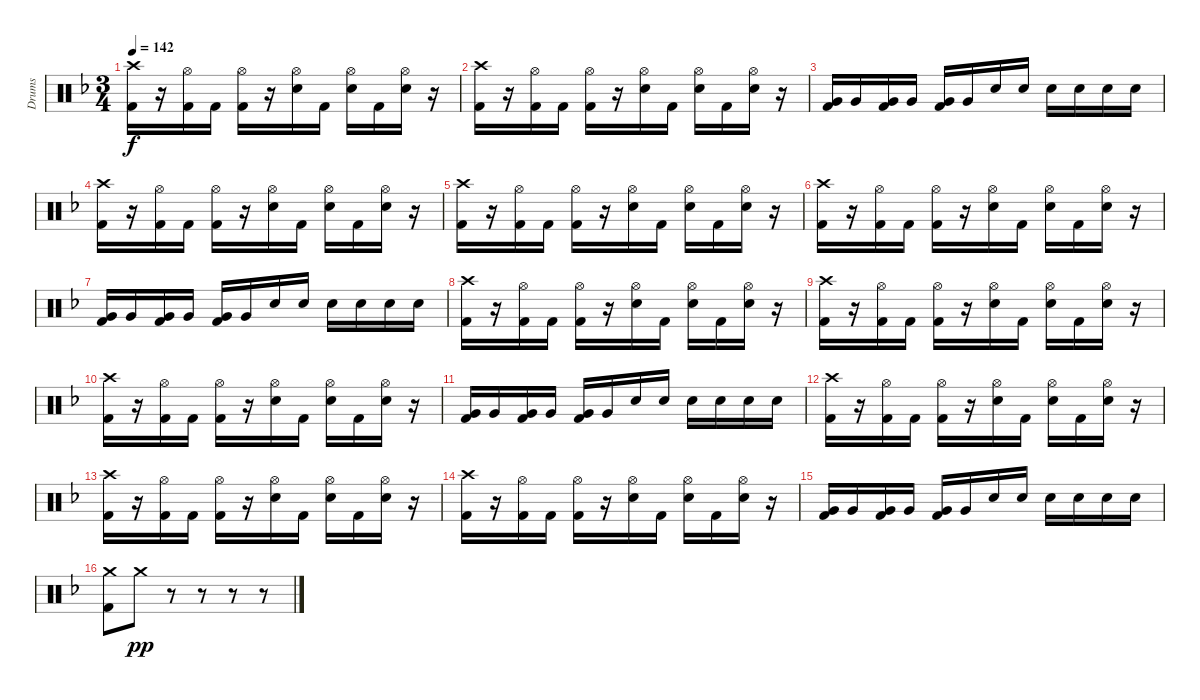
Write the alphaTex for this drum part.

\track ("Drums" "Drums") {instrument percussion}
\staff {score}
\articulation defaults
\ts (3 4)
\tempo 142
\clef neutral
\ks dminor
("Crash high (hit)" "Kick (hit) 2").16{dy f} r.16 ("Hi-Hat (open)" "Kick (hit) 2").16 "Kick (hit) 2".16 ("Hi-Hat (open)" "Kick (hit) 2").16 r.16 ("Hi-Hat (open)" "Electric Snare (hit)").16 "Kick (hit) 2".16 ("Hi-Hat (open)" "Electric Snare (hit)").16 "Kick (hit) 2".16 ("Hi-Hat (open)" "Electric Snare (hit)").16 r.16 |
("Crash high (hit)" "Kick (hit) 2").16 r.16 ("Hi-Hat (open)" "Kick (hit) 2").16 "Kick (hit) 2".16 ("Hi-Hat (open)" "Kick (hit) 2").16 r.16 ("Hi-Hat (open)" "Electric Snare (hit)").16 "Kick (hit) 2".16 ("Hi-Hat (open)" "Electric Snare (hit)").16 "Kick (hit) 2".16 ("Hi-Hat (open)" "Electric Snare (hit)").16 r.16 |
("Very Low Tom (hit)" "Kick (hit) 2").16 "Very Low Tom (hit)".16 ("Very Low Tom (hit)" "Kick (hit) 2").16 "Very Low Tom (hit)".16 ("Very Low Tom (hit)" "Kick (hit) 2").16 "Very Low Tom (hit)".16 "Electric Snare (hit)".16 "Electric Snare (hit)".16 "Electric Snare (hit)".16 "Electric Snare (hit)".16 "Electric Snare (hit)".16 "Electric Snare (hit)".16 |
("Crash high (hit)" "Kick (hit) 2").16 r.16 ("Hi-Hat (open)" "Kick (hit) 2").16 "Kick (hit) 2".16 ("Hi-Hat (open)" "Kick (hit) 2").16 r.16 ("Hi-Hat (open)" "Electric Snare (hit)").16 "Kick (hit) 2".16 ("Hi-Hat (open)" "Electric Snare (hit)").16 "Kick (hit) 2".16 ("Hi-Hat (open)" "Electric Snare (hit)").16 r.16 |
("Crash high (hit)" "Kick (hit) 2").16 r.16 ("Hi-Hat (open)" "Kick (hit) 2").16 "Kick (hit) 2".16 ("Hi-Hat (open)" "Kick (hit) 2").16 r.16 ("Hi-Hat (open)" "Electric Snare (hit)").16 "Kick (hit) 2".16 ("Hi-Hat (open)" "Electric Snare (hit)").16 "Kick (hit) 2".16 ("Hi-Hat (open)" "Electric Snare (hit)").16 r.16 |
("Crash high (hit)" "Kick (hit) 2").16 r.16 ("Hi-Hat (open)" "Kick (hit) 2").16 "Kick (hit) 2".16 ("Hi-Hat (open)" "Kick (hit) 2").16 r.16 ("Hi-Hat (open)" "Electric Snare (hit)").16 "Kick (hit) 2".16 ("Hi-Hat (open)" "Electric Snare (hit)").16 "Kick (hit) 2".16 ("Hi-Hat (open)" "Electric Snare (hit)").16 r.16 |
("Very Low Tom (hit)" "Kick (hit) 2").16 "Very Low Tom (hit)".16 ("Very Low Tom (hit)" "Kick (hit) 2").16 "Very Low Tom (hit)".16 ("Very Low Tom (hit)" "Kick (hit) 2").16 "Very Low Tom (hit)".16 "Electric Snare (hit)".16 "Electric Snare (hit)".16 "Electric Snare (hit)".16 "Electric Snare (hit)".16 "Electric Snare (hit)".16 "Electric Snare (hit)".16 |
("Crash high (hit)" "Kick (hit) 2").16 r.16 ("Hi-Hat (open)" "Kick (hit) 2").16 "Kick (hit) 2".16 ("Hi-Hat (open)" "Kick (hit) 2").16 r.16 ("Hi-Hat (open)" "Electric Snare (hit)").16 "Kick (hit) 2".16 ("Hi-Hat (open)" "Electric Snare (hit)").16 "Kick (hit) 2".16 ("Hi-Hat (open)" "Electric Snare (hit)").16 r.16 |
("Crash high (hit)" "Kick (hit) 2").16 r.16 ("Hi-Hat (open)" "Kick (hit) 2").16 "Kick (hit) 2".16 ("Hi-Hat (open)" "Kick (hit) 2").16 r.16 ("Hi-Hat (open)" "Electric Snare (hit)").16 "Kick (hit) 2".16 ("Hi-Hat (open)" "Electric Snare (hit)").16 "Kick (hit) 2".16 ("Hi-Hat (open)" "Electric Snare (hit)").16 r.16 |
("Crash high (hit)" "Kick (hit) 2").16 r.16 ("Hi-Hat (open)" "Kick (hit) 2").16 "Kick (hit) 2".16 ("Hi-Hat (open)" "Kick (hit) 2").16 r.16 ("Hi-Hat (open)" "Electric Snare (hit)").16 "Kick (hit) 2".16 ("Hi-Hat (open)" "Electric Snare (hit)").16 "Kick (hit) 2".16 ("Hi-Hat (open)" "Electric Snare (hit)").16 r.16 |
("Very Low Tom (hit)" "Kick (hit) 2").16 "Very Low Tom (hit)".16 ("Very Low Tom (hit)" "Kick (hit) 2").16 "Very Low Tom (hit)".16 ("Very Low Tom (hit)" "Kick (hit) 2").16 "Very Low Tom (hit)".16 "Electric Snare (hit)".16 "Electric Snare (hit)".16 "Electric Snare (hit)".16 "Electric Snare (hit)".16 "Electric Snare (hit)".16 "Electric Snare (hit)".16 |
("Crash high (hit)" "Kick (hit) 2").16 r.16 ("Hi-Hat (open)" "Kick (hit) 2").16 "Kick (hit) 2".16 ("Hi-Hat (open)" "Kick (hit) 2").16 r.16 ("Hi-Hat (open)" "Electric Snare (hit)").16 "Kick (hit) 2".16 ("Hi-Hat (open)" "Electric Snare (hit)").16 "Kick (hit) 2".16 ("Hi-Hat (open)" "Electric Snare (hit)").16 r.16 |
("Crash high (hit)" "Kick (hit) 2").16 r.16 ("Hi-Hat (open)" "Kick (hit) 2").16 "Kick (hit) 2".16 ("Hi-Hat (open)" "Kick (hit) 2").16 r.16 ("Hi-Hat (open)" "Electric Snare (hit)").16 "Kick (hit) 2".16 ("Hi-Hat (open)" "Electric Snare (hit)").16 "Kick (hit) 2".16 ("Hi-Hat (open)" "Electric Snare (hit)").16 r.16 |
("Crash high (hit)" "Kick (hit) 2").16 r.16 ("Hi-Hat (open)" "Kick (hit) 2").16 "Kick (hit) 2".16 ("Hi-Hat (open)" "Kick (hit) 2").16 r.16 ("Hi-Hat (open)" "Electric Snare (hit)").16 "Kick (hit) 2".16 ("Hi-Hat (open)" "Electric Snare (hit)").16 "Kick (hit) 2".16 ("Hi-Hat (open)" "Electric Snare (hit)").16 r.16 |
("Very Low Tom (hit)" "Kick (hit) 2").16 "Very Low Tom (hit)".16 ("Very Low Tom (hit)" "Kick (hit) 2").16 "Very Low Tom (hit)".16 ("Very Low Tom (hit)" "Kick (hit) 2").16 "Very Low Tom (hit)".16 "Electric Snare (hit)".16 "Electric Snare (hit)".16 "Electric Snare (hit)".16 "Electric Snare (hit)".16 "Electric Snare (hit)".16 "Electric Snare (hit)".16 |
("Crash medium (hit)" "Kick (hit) 2").8 "Crash medium (hit)".8{dy pp} r.8 r.8 r.8 r.8
